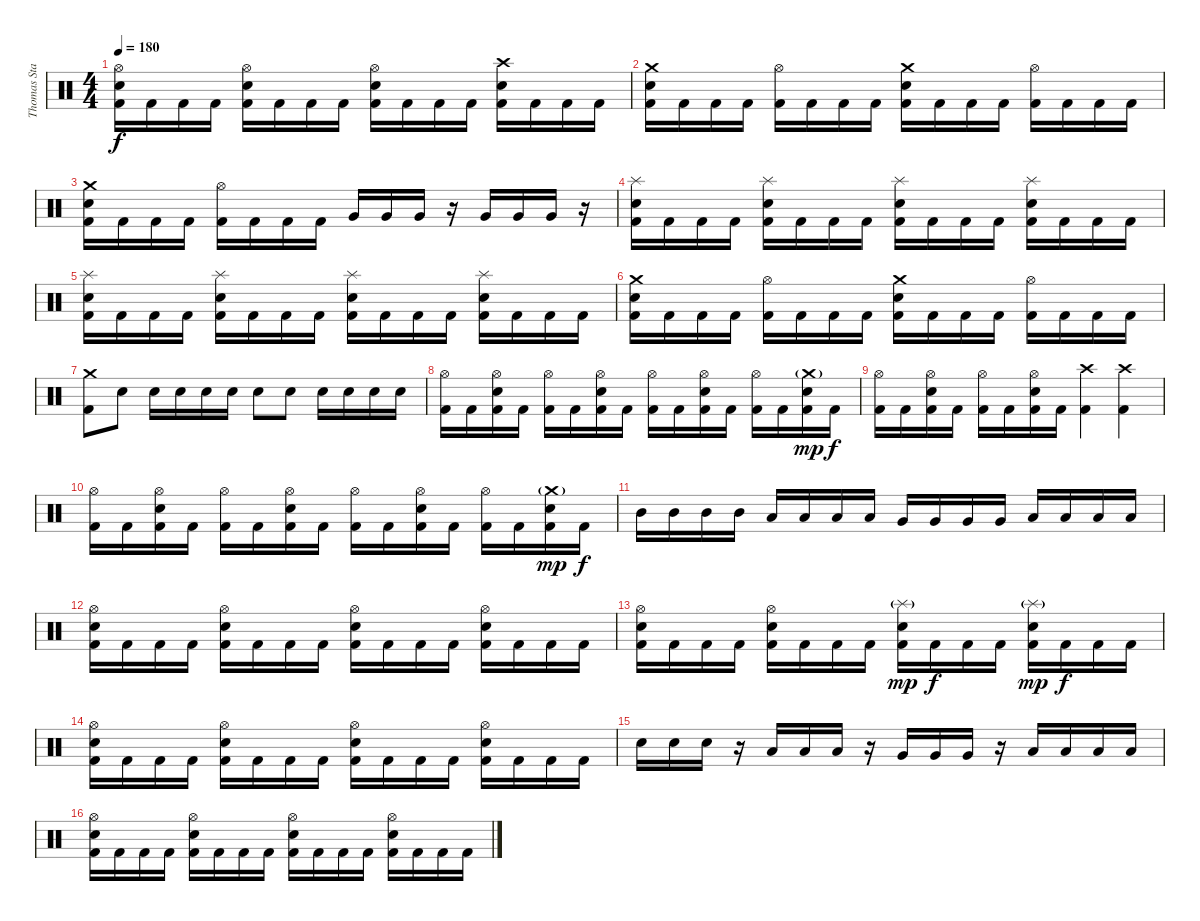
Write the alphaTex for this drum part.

\track ("Thomas Stauch" "Thomas Sta") {instrument percussion}
\staff {score}
\articulation defaults
\ts (4 4)
\tempo 180
\clef neutral
\ks c
("Hi-Hat (open)" "Electric Snare (hit)" "Kick (hit) 2").16{dy f} "Kick (hit) 2".16 "Kick (hit) 2".16 "Kick (hit) 2".16 ("Hi-Hat (open)" "Electric Snare (hit)" "Kick (hit) 2").16 "Kick (hit) 2".16 "Kick (hit) 2".16 "Kick (hit) 2".16 ("Hi-Hat (open)" "Electric Snare (hit)" "Kick (hit) 2").16 "Kick (hit) 2".16 "Kick (hit) 2".16 "Kick (hit) 2".16 ("Crash high (hit)" "Electric Snare (hit)" "Kick (hit) 2").16 "Kick (hit) 2".16 "Kick (hit) 2".16 "Kick (hit) 2".16 |
("Crash medium (hit)" "Electric Snare (hit)" "Kick (hit) 2").16 "Kick (hit) 2".16 "Kick (hit) 2".16 "Kick (hit) 2".16 ("Hi-Hat (open)" "Kick (hit) 2").16 "Kick (hit) 2".16 "Kick (hit) 2".16 "Kick (hit) 2".16 ("Crash medium (hit)" "Electric Snare (hit)" "Kick (hit) 2").16 "Kick (hit) 2".16 "Kick (hit) 2".16 "Kick (hit) 2".16 ("Hi-Hat (open)" "Kick (hit) 2").16 "Kick (hit) 2".16 "Kick (hit) 2".16 "Kick (hit) 2".16 |
("Crash medium (hit)" "Electric Snare (hit)" "Kick (hit) 2").16 "Kick (hit) 2".16 "Kick (hit) 2".16 "Kick (hit) 2".16 ("Hi-Hat (open)" "Kick (hit) 2").16 "Kick (hit) 2".16 "Kick (hit) 2".16 "Kick (hit) 2".16 "Very Low Tom (hit)".16 "Very Low Tom (hit)".16 "Very Low Tom (hit)".16 r.16 "Very Low Tom (hit)".16 "Very Low Tom (hit)".16 "Very Low Tom (hit)".16 r.16 |
("Splash (hit)" "Electric Snare (hit)" "Kick (hit) 2").16 "Kick (hit) 2".16 "Kick (hit) 2".16 "Kick (hit) 2".16 ("Splash (hit)" "Electric Snare (hit)" "Kick (hit) 2").16 "Kick (hit) 2".16 "Kick (hit) 2".16 "Kick (hit) 2".16 ("Splash (hit)" "Electric Snare (hit)" "Kick (hit) 2").16 "Kick (hit) 2".16 "Kick (hit) 2".16 "Kick (hit) 2".16 ("Splash (hit)" "Electric Snare (hit)" "Kick (hit) 2").16 "Kick (hit) 2".16 "Kick (hit) 2".16 "Kick (hit) 2".16 |
("Splash (hit)" "Electric Snare (hit)" "Kick (hit) 2").16 "Kick (hit) 2".16 "Kick (hit) 2".16 "Kick (hit) 2".16 ("Splash (hit)" "Electric Snare (hit)" "Kick (hit) 2").16 "Kick (hit) 2".16 "Kick (hit) 2".16 "Kick (hit) 2".16 ("Splash (hit)" "Electric Snare (hit)" "Kick (hit) 2").16 "Kick (hit) 2".16 "Kick (hit) 2".16 "Kick (hit) 2".16 ("Splash (hit)" "Electric Snare (hit)" "Kick (hit) 2").16 "Kick (hit) 2".16 "Kick (hit) 2".16 "Kick (hit) 2".16 |
("Crash medium (hit)" "Electric Snare (hit)" "Kick (hit) 2").16 "Kick (hit) 2".16 "Kick (hit) 2".16 "Kick (hit) 2".16 ("Hi-Hat (open)" "Kick (hit) 2").16 "Kick (hit) 2".16 "Kick (hit) 2".16 "Kick (hit) 2".16 ("Crash medium (hit)" "Electric Snare (hit)" "Kick (hit) 2").16 "Kick (hit) 2".16 "Kick (hit) 2".16 "Kick (hit) 2".16 ("Hi-Hat (open)" "Kick (hit) 2").16 "Kick (hit) 2".16 "Kick (hit) 2".16 "Kick (hit) 2".16 |
("Crash medium (hit)" "Kick (hit) 2").8 "Electric Snare (hit)".8 "Electric Snare (hit)".16 "Electric Snare (hit)".16 "Electric Snare (hit)".16 "Electric Snare (hit)".16 "Electric Snare (hit)".8 "Electric Snare (hit)".8 "Electric Snare (hit)".16 "Electric Snare (hit)".16 "Electric Snare (hit)".16 "Electric Snare (hit)".16 |
("Hi-Hat (open)" "Kick (hit) 2").16 "Kick (hit) 2".16 ("Hi-Hat (open)" "Electric Snare (hit)" "Kick (hit) 2").16 "Kick (hit) 2".16 ("Hi-Hat (open)" "Kick (hit) 2").16 "Kick (hit) 2".16 ("Hi-Hat (open)" "Electric Snare (hit)" "Kick (hit) 2").16 "Kick (hit) 2".16 ("Hi-Hat (open)" "Kick (hit) 2").16 "Kick (hit) 2".16 ("Hi-Hat (open)" "Electric Snare (hit)" "Kick (hit) 2").16 "Kick (hit) 2".16 ("Hi-Hat (open)" "Kick (hit) 2").16 "Kick (hit) 2".16 ("Crash medium (hit)"{g} "Electric Snare (hit)" "Kick (hit) 2").16{dy mp} "Kick (hit) 2".16{dy f} |
("Hi-Hat (open)" "Kick (hit) 2").16 "Kick (hit) 2".16 ("Hi-Hat (open)" "Electric Snare (hit)" "Kick (hit) 2").16 "Kick (hit) 2".16 ("Hi-Hat (open)" "Kick (hit) 2").16 "Kick (hit) 2".16 ("Hi-Hat (open)" "Electric Snare (hit)" "Kick (hit) 2").16 "Kick (hit) 2".16 ("Crash high (hit)" "Kick (hit) 2").4 ("Crash high (hit)" "Kick (hit) 2").4 |
("Hi-Hat (open)" "Kick (hit) 2").16 "Kick (hit) 2".16 ("Hi-Hat (open)" "Electric Snare (hit)" "Kick (hit) 2").16 "Kick (hit) 2".16 ("Hi-Hat (open)" "Kick (hit) 2").16 "Kick (hit) 2".16 ("Hi-Hat (open)" "Electric Snare (hit)" "Kick (hit) 2").16 "Kick (hit) 2".16 ("Hi-Hat (open)" "Kick (hit) 2").16 "Kick (hit) 2".16 ("Hi-Hat (open)" "Electric Snare (hit)" "Kick (hit) 2").16 "Kick (hit) 2".16 ("Hi-Hat (open)" "Kick (hit) 2").16 "Kick (hit) 2".16 ("Crash medium (hit)"{g} "Electric Snare (hit)" "Kick (hit) 2").16{dy mp} "Kick (hit) 2".16{dy f} |
"Mid Tom (hit)".16 "Mid Tom (hit)".16 "Mid Tom (hit)".16 "Mid Tom (hit)".16 "Low Tom (hit)".16 "Low Tom (hit)".16 "Low Tom (hit)".16 "Low Tom (hit)".16 "Very Low Tom (hit)".16 "Very Low Tom (hit)".16 "Very Low Tom (hit)".16 "Very Low Tom (hit)".16 "Low Floor Tom (hit)".16 "Low Floor Tom (hit)".16 "Low Floor Tom (hit)".16 "Low Floor Tom (hit)".16 |
("Hi-Hat (open)" "Electric Snare (hit)" "Kick (hit) 2").16 "Kick (hit) 2".16 "Kick (hit) 2".16 "Kick (hit) 2".16 ("Hi-Hat (open)" "Electric Snare (hit)" "Kick (hit) 2").16 "Kick (hit) 2".16 "Kick (hit) 2".16 "Kick (hit) 2".16 ("Hi-Hat (open)" "Electric Snare (hit)" "Kick (hit) 2").16 "Kick (hit) 2".16 "Kick (hit) 2".16 "Kick (hit) 2".16 ("Hi-Hat (open)" "Electric Snare (hit)" "Kick (hit) 2").16 "Kick (hit) 2".16 "Kick (hit) 2".16 "Kick (hit) 2".16 |
("Hi-Hat (open)" "Electric Snare (hit)" "Kick (hit) 2").16 "Kick (hit) 2".16 "Kick (hit) 2".16 "Kick (hit) 2".16 ("Hi-Hat (open)" "Electric Snare (hit)" "Kick (hit) 2").16 "Kick (hit) 2".16 "Kick (hit) 2".16 "Kick (hit) 2".16 ("Splash (hit)"{g} "Electric Snare (hit)" "Kick (hit) 2").16{dy mp} "Kick (hit) 2".16{dy f} "Kick (hit) 2".16 "Kick (hit) 2".16 ("Splash (hit)"{g} "Electric Snare (hit)" "Kick (hit) 2").16{dy mp} "Kick (hit) 2".16{dy f} "Kick (hit) 2".16 "Kick (hit) 2".16 |
("Hi-Hat (open)" "Electric Snare (hit)" "Kick (hit) 2").16 "Kick (hit) 2".16 "Kick (hit) 2".16 "Kick (hit) 2".16 ("Hi-Hat (open)" "Electric Snare (hit)" "Kick (hit) 2").16 "Kick (hit) 2".16 "Kick (hit) 2".16 "Kick (hit) 2".16 ("Hi-Hat (open)" "Electric Snare (hit)" "Kick (hit) 2").16 "Kick (hit) 2".16 "Kick (hit) 2".16 "Kick (hit) 2".16 ("Hi-Hat (open)" "Electric Snare (hit)" "Kick (hit) 2").16 "Kick (hit) 2".16 "Kick (hit) 2".16 "Kick (hit) 2".16 |
"Electric Snare (hit)".16 "Electric Snare (hit)".16 "Electric Snare (hit)".16 r.16 "Low Tom (hit)".16 "Low Tom (hit)".16 "Low Tom (hit)".16 r.16 "Very Low Tom (hit)".16 "Very Low Tom (hit)".16 "Very Low Tom (hit)".16 r.16 "Low Floor Tom (hit)".16 "Low Floor Tom (hit)".16 "Low Floor Tom (hit)".16 "Low Floor Tom (hit)".16 |
("Hi-Hat (open)" "Electric Snare (hit)" "Kick (hit) 2").16 "Kick (hit) 2".16 "Kick (hit) 2".16 "Kick (hit) 2".16 ("Hi-Hat (open)" "Electric Snare (hit)" "Kick (hit) 2").16 "Kick (hit) 2".16 "Kick (hit) 2".16 "Kick (hit) 2".16 ("Hi-Hat (open)" "Electric Snare (hit)" "Kick (hit) 2").16 "Kick (hit) 2".16 "Kick (hit) 2".16 "Kick (hit) 2".16 ("Hi-Hat (open)" "Electric Snare (hit)" "Kick (hit) 2").16 "Kick (hit) 2".16 "Kick (hit) 2".16 "Kick (hit) 2".16
